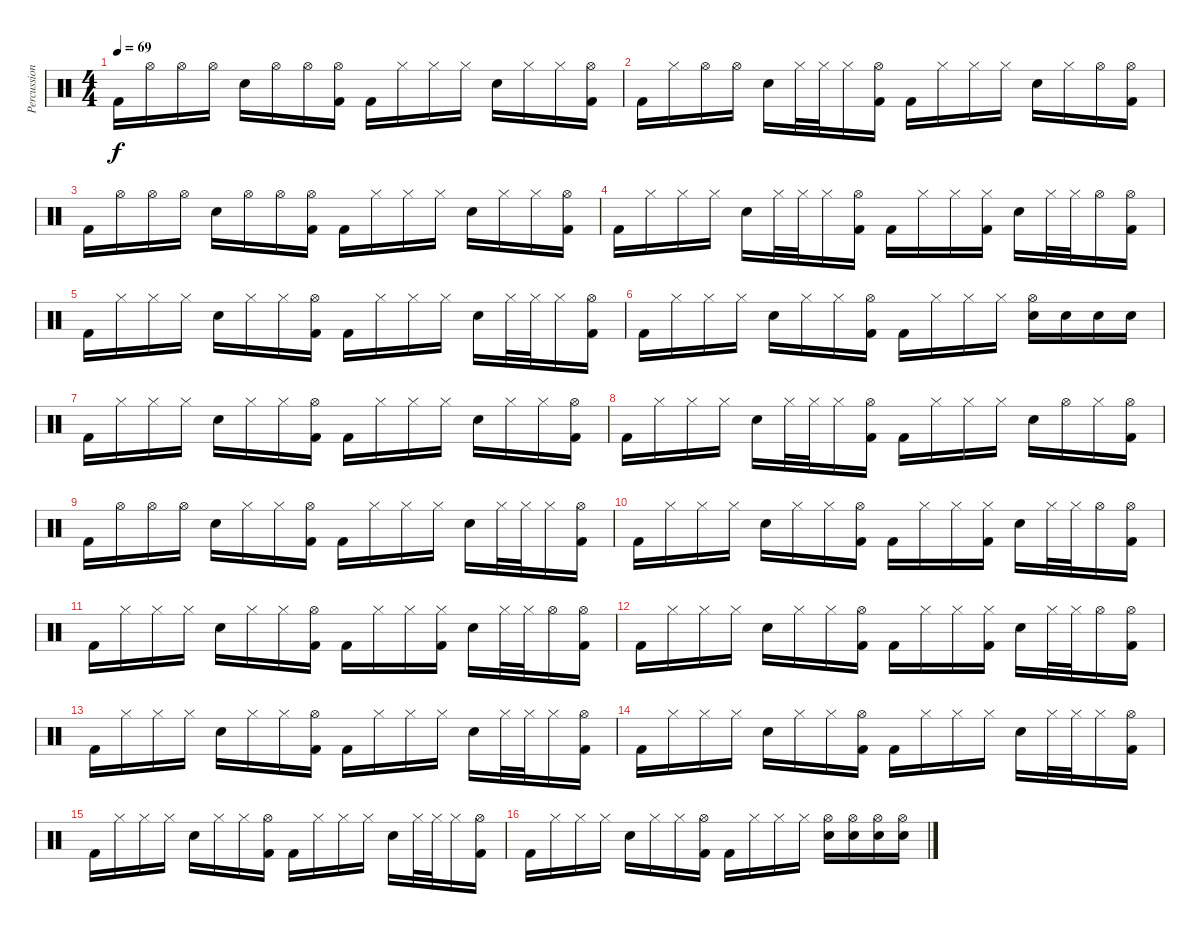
\track ("Percussions" "Percussion") {instrument percussion}
\staff {score}
\articulation defaults
\ts (4 4)
\tempo 69
\clef neutral
\ks c "Kick (hit) 2".16{dy f} "Hi-Hat (open)".16 "Hi-Hat (open)".16 "Hi-Hat (open)".16 "Electric Snare (hit)".16 "Hi-Hat (open)".16 "Hi-Hat (open)".16
("Hi-Hat (open)" "Kick (hit) 2").16 "Kick (hit) 2".16 "Hi-Hat (closed)".16 "Hi-Hat (closed)".16 "Hi-Hat (closed)".16 "Electric Snare (hit)".16 "Hi-Hat (closed)".16 "Hi-Hat (closed)".16 ("Hi-Hat (open)" "Kick (hit) 2").16 |
"Kick (hit) 2".16 "Hi-Hat (closed)".16 "Hi-Hat (open)".16 "Hi-Hat (open)".16 "Electric Snare (hit)".16 "Hi-Hat (closed)".32 "Hi-Hat (closed)".32 "Hi-Hat (closed)".16 ("Hi-Hat (open)" "Kick (hit) 2").16 "Kick (hit) 2".16 "Hi-Hat (closed)".16 "Hi-Hat (closed)".16 "Hi-Hat (closed)".16 "Electric Snare (hit)".16 "Hi-Hat (closed)".16 "Hi-Hat (open)".16 ("Hi-Hat (open)" "Kick (hit) 2").16 |
"Kick (hit) 2".16 "Hi-Hat (open)".16 "Hi-Hat (open)".16 "Hi-Hat (open)".16 "Electric Snare (hit)".16 "Hi-Hat (open)".16 "Hi-Hat (open)".16 ("Hi-Hat (open)" "Kick (hit) 2").16 "Kick (hit) 2".16 "Hi-Hat (closed)".16 "Hi-Hat (closed)".16 "Hi-Hat (closed)".16 "Electric Snare (hit)".16 "Hi-Hat (closed)".16 "Hi-Hat (closed)".16 ("Hi-Hat (open)" "Kick (hit) 2").16 |
"Kick (hit) 2".16 "Hi-Hat (closed)".16 "Hi-Hat (closed)".16 "Hi-Hat (closed)".16 "Electric Snare (hit)".16 "Hi-Hat (closed)".32 "Hi-Hat (closed)".32 "Hi-Hat (closed)".16 ("Hi-Hat (open)" "Kick (hit) 2").16 "Kick (hit) 2".16 "Hi-Hat (closed)".16 "Hi-Hat (closed)".16 ("Hi-Hat (closed)" "Kick (hit) 2").16 "Electric Snare (hit)".16 "Hi-Hat (closed)".32 "Hi-Hat (closed)".32 "Hi-Hat (open)".16 ("Hi-Hat (open)" "Kick (hit) 2").16 |
"Kick (hit) 2".16 "Hi-Hat (closed)".16 "Hi-Hat (closed)".16 "Hi-Hat (closed)".16 "Electric Snare (hit)".16 "Hi-Hat (closed)".16 "Hi-Hat (closed)".16 ("Hi-Hat (open)" "Kick (hit) 2").16 "Kick (hit) 2".16 "Hi-Hat (closed)".16 "Hi-Hat (closed)".16 "Hi-Hat (closed)".16 "Electric Snare (hit)".16 "Hi-Hat (closed)".32 "Hi-Hat (closed)".32 "Hi-Hat (closed)".16 ("Hi-Hat (open)" "Kick (hit) 2").16 |
"Kick (hit) 2".16 "Hi-Hat (closed)".16 "Hi-Hat (closed)".16 "Hi-Hat (closed)".16 "Electric Snare (hit)".16 "Hi-Hat (closed)".16 "Hi-Hat (closed)".16 ("Hi-Hat (open)" "Kick (hit) 2").16 "Kick (hit) 2".16 "Hi-Hat (closed)".16 "Hi-Hat (closed)".16 "Hi-Hat (closed)".16 ("Hi-Hat (open)" "Electric Snare (hit)").16 "Electric Snare (hit)".16 "Electric Snare (hit)".16 "Electric Snare (hit)".16 |
"Kick (hit) 2".16 "Hi-Hat (closed)".16 "Hi-Hat (closed)".16 "Hi-Hat (closed)".16 "Electric Snare (hit)".16 "Hi-Hat (closed)".16 "Hi-Hat (closed)".16 ("Hi-Hat (open)" "Kick (hit) 2").16 "Kick (hit) 2".16 "Hi-Hat (closed)".16 "Hi-Hat (closed)".16 "Hi-Hat (closed)".16 "Electric Snare (hit)".16 "Hi-Hat (closed)".16 "Hi-Hat (closed)".16 ("Hi-Hat (open)" "Kick (hit) 2").16 |
"Kick (hit) 2".16 "Hi-Hat (closed)".16 "Hi-Hat (closed)".16 "Hi-Hat (closed)".16 "Electric Snare (hit)".16 "Hi-Hat (closed)".32 "Hi-Hat (closed)".32 "Hi-Hat (closed)".16 ("Hi-Hat (open)" "Kick (hit) 2").16 "Kick (hit) 2".16 "Hi-Hat (closed)".16 "Hi-Hat (closed)".16 "Hi-Hat (closed)".16 "Electric Snare (hit)".16 "Hi-Hat (open)".16 "Hi-Hat (closed)".16 ("Hi-Hat (open)" "Kick (hit) 2").16 |
"Kick (hit) 2".16 "Hi-Hat (open)".16 "Hi-Hat (open)".16 "Hi-Hat (open)".16 "Electric Snare (hit)".16 "Hi-Hat (closed)".16 "Hi-Hat (closed)".16 ("Hi-Hat (open)" "Kick (hit) 2").16 "Kick (hit) 2".16 "Hi-Hat (closed)".16 "Hi-Hat (closed)".16 "Hi-Hat (closed)".16 "Electric Snare (hit)".16 "Hi-Hat (closed)".32 "Hi-Hat (closed)".32 "Hi-Hat (closed)".16 ("Hi-Hat (open)" "Kick (hit) 2").16 |
"Kick (hit) 2".16 "Hi-Hat (closed)".16 "Hi-Hat (closed)".16 "Hi-Hat (closed)".16 "Electric Snare (hit)".16 "Hi-Hat (closed)".16 "Hi-Hat (closed)".16 ("Hi-Hat (open)" "Kick (hit) 2").16 "Kick (hit) 2".16 "Hi-Hat (closed)".16 "Hi-Hat (closed)".16 ("Hi-Hat (closed)" "Kick (hit) 2").16 "Electric Snare (hit)".16 "Hi-Hat (closed)".32 "Hi-Hat (closed)".32 "Hi-Hat (open)".16 ("Hi-Hat (open)" "Kick (hit) 2").16 |
"Kick (hit) 2".16 "Hi-Hat (closed)".16 "Hi-Hat (closed)".16 "Hi-Hat (closed)".16 "Electric Snare (hit)".16 "Hi-Hat (closed)".16 "Hi-Hat (closed)".16 ("Hi-Hat (open)" "Kick (hit) 2").16 "Kick (hit) 2".16 "Hi-Hat (closed)".16 "Hi-Hat (closed)".16 ("Hi-Hat (closed)" "Kick (hit) 2").16 "Electric Snare (hit)".16 "Hi-Hat (closed)".32 "Hi-Hat (closed)".32 "Hi-Hat (open)".16 ("Hi-Hat (open)" "Kick (hit) 2").16 |
"Kick (hit) 2".16 "Hi-Hat (closed)".16 "Hi-Hat (closed)".16 "Hi-Hat (closed)".16 "Electric Snare (hit)".16 "Hi-Hat (closed)".16 "Hi-Hat (closed)".16 ("Hi-Hat (open)" "Kick (hit) 2").16 "Kick (hit) 2".16 "Hi-Hat (closed)".16 "Hi-Hat (closed)".16 ("Hi-Hat (closed)" "Kick (hit) 2").16 "Electric Snare (hit)".16 "Hi-Hat (closed)".32 "Hi-Hat (closed)".32 "Hi-Hat (open)".16 ("Hi-Hat (open)" "Kick (hit) 2").16 |
"Kick (hit) 2".16 "Hi-Hat (closed)".16 "Hi-Hat (closed)".16 "Hi-Hat (closed)".16 "Electric Snare (hit)".16 "Hi-Hat (closed)".16 "Hi-Hat (closed)".16 ("Hi-Hat (open)" "Kick (hit) 2").16 "Kick (hit) 2".16 "Hi-Hat (closed)".16 "Hi-Hat (closed)".16 "Hi-Hat (closed)".16 "Electric Snare (hit)".16 "Hi-Hat (closed)".32 "Hi-Hat (closed)".32 "Hi-Hat (closed)".16 ("Hi-Hat (open)" "Kick (hit) 2").16 |
"Kick (hit) 2".16 "Hi-Hat (closed)".16 "Hi-Hat (closed)".16 "Hi-Hat (closed)".16 "Electric Snare (hit)".16 "Hi-Hat (closed)".16 "Hi-Hat (closed)".16 ("Hi-Hat (open)" "Kick (hit) 2").16 "Kick (hit) 2".16 "Hi-Hat (closed)".16 "Hi-Hat (closed)".16 "Hi-Hat (closed)".16 "Electric Snare (hit)".16 "Hi-Hat (closed)".32 "Hi-Hat (closed)".32 "Hi-Hat (closed)".16 ("Hi-Hat (open)" "Kick (hit) 2").16 |
"Kick (hit) 2".16 "Hi-Hat (closed)".16 "Hi-Hat (closed)".16 "Hi-Hat (closed)".16 "Electric Snare (hit)".16 "Hi-Hat (closed)".16 "Hi-Hat (closed)".16 ("Hi-Hat (open)" "Kick (hit) 2").16 "Kick (hit) 2".16 "Hi-Hat (closed)".16 "Hi-Hat (closed)".16 "Hi-Hat (closed)".16 "Electric Snare (hit)".16 "Hi-Hat (closed)".32 "Hi-Hat (closed)".32 "Hi-Hat (closed)".16 ("Hi-Hat (open)" "Kick (hit) 2").16 |
"Kick (hit) 2".16 "Hi-Hat (closed)".16 "Hi-Hat (closed)".16 "Hi-Hat (closed)".16 "Electric Snare (hit)".16 "Hi-Hat (closed)".16 "Hi-Hat (closed)".16 ("Hi-Hat (open)" "Kick (hit) 2").16 "Kick (hit) 2".16 "Hi-Hat (closed)".16 "Hi-Hat (closed)".16 "Hi-Hat (closed)".16 ("Hi-Hat (open)" "Electric Snare (hit)").16 ("Hi-Hat (open)" "Electric Snare (hit)").16 ("Hi-Hat (open)" "Electric Snare (hit)").16 ("Hi-Hat (open)" "Electric Snare (hit)").16
